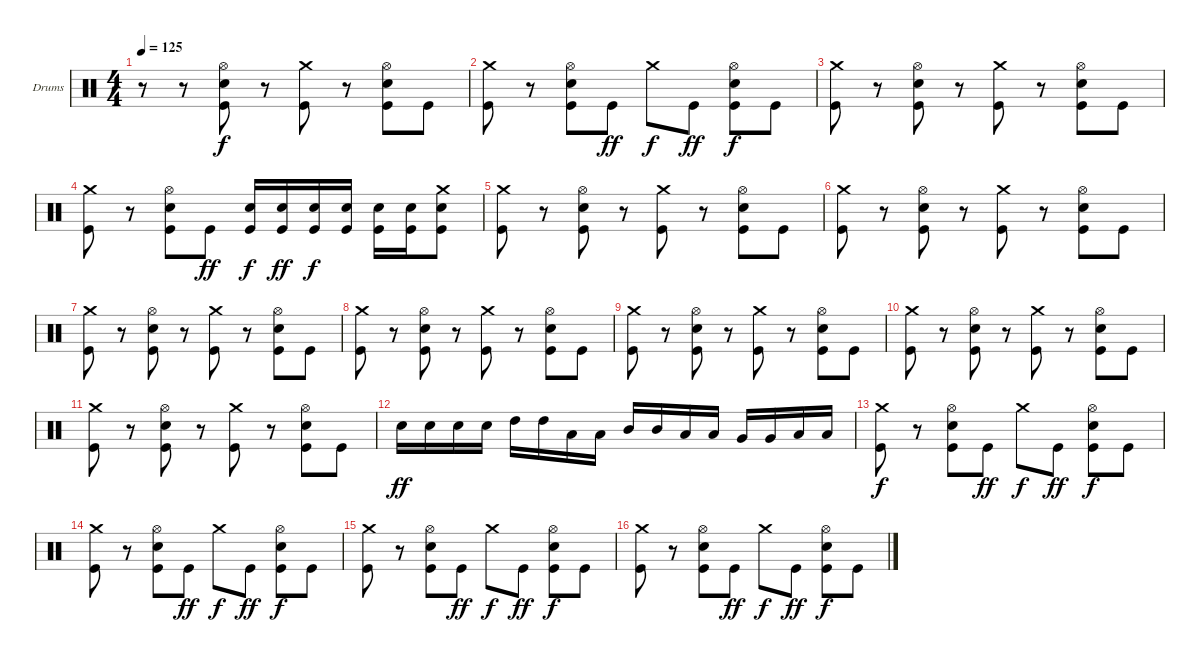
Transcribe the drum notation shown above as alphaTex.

\defaultSystemsLayout 4
\bracketExtendMode groupsimilarinstruments
\firstSystemTrackNameOrientation horizontal
\otherSystemsTrackNameOrientation horizontal
\track ("Drumkit" "Drums") {instrument percussion}
\staff {score}
\articulation defaults
\ts (4 4)
\tempo 125
\clef neutral
\ks c
r.8{dy f} r.8 ("Kick (hit)" "Snare (hit) 2" "Hi-Hat (open)").8 r.8 ("Kick (hit)" "Crash medium (hit)").8 r.8 ("Kick (hit)" "Snare (hit) 2" "Hi-Hat (open)").8 "Kick (hit)".8 |
("Kick (hit)" "Crash medium (hit)").8 r.8 ("Kick (hit)" "Snare (hit) 2" "Hi-Hat (open)").8 "Kick (hit)".8{dy ff} "Crash medium (hit)".8{dy f} "Kick (hit)".8{dy ff} ("Kick (hit)" "Snare (hit) 2" "Hi-Hat (open)").8{dy f} "Kick (hit)".8 |
("Kick (hit)" "Crash medium (hit)").8 r.8 ("Kick (hit)" "Snare (hit) 2" "Hi-Hat (open)").8 r.8 ("Kick (hit)" "Crash medium (hit)").8 r.8 ("Kick (hit)" "Snare (hit) 2" "Hi-Hat (open)").8 "Kick (hit)".8 |
("Kick (hit)" "Crash medium (hit)").8 r.8 ("Kick (hit)" "Snare (hit) 2" "Hi-Hat (open)").8 "Kick (hit)".8{dy ff} ("Kick (hit)" "Snare (hit) 2").16{dy f} ("Kick (hit)" "Snare (hit) 2").16{dy ff} ("Kick (hit)" "Snare (hit) 2").16{dy f} ("Kick (hit)" "Snare (hit) 2").16 ("Kick (hit)" "Snare (hit) 2").16 ("Kick (hit)" "Snare (hit) 2").16 ("Kick (hit)" "Snare (hit) 2" "Crash medium (hit)").8 |
("Kick (hit)" "Crash medium (hit)").8 r.8 ("Kick (hit)" "Snare (hit) 2" "Hi-Hat (open)").8 r.8 ("Kick (hit)" "Crash medium (hit)").8 r.8 ("Kick (hit)" "Snare (hit) 2" "Hi-Hat (open)").8 "Kick (hit)".8 |
("Kick (hit)" "Crash medium (hit)").8 r.8 ("Kick (hit)" "Snare (hit) 2" "Hi-Hat (open)").8 r.8 ("Kick (hit)" "Crash medium (hit)").8 r.8 ("Kick (hit)" "Snare (hit) 2" "Hi-Hat (open)").8 "Kick (hit)".8 |
("Kick (hit)" "Crash medium (hit)").8 r.8 ("Kick (hit)" "Snare (hit) 2" "Hi-Hat (open)").8 r.8 ("Kick (hit)" "Crash medium (hit)").8 r.8 ("Kick (hit)" "Snare (hit) 2" "Hi-Hat (open)").8 "Kick (hit)".8 |
("Kick (hit)" "Crash medium (hit)").8 r.8 ("Kick (hit)" "Snare (hit) 2" "Hi-Hat (open)").8 r.8 ("Kick (hit)" "Crash medium (hit)").8 r.8 ("Kick (hit)" "Snare (hit) 2" "Hi-Hat (open)").8 "Kick (hit)".8 |
("Kick (hit)" "Crash medium (hit)").8 r.8 ("Kick (hit)" "Snare (hit) 2" "Hi-Hat (open)").8 r.8 ("Kick (hit)" "Crash medium (hit)").8 r.8 ("Kick (hit)" "Snare (hit) 2" "Hi-Hat (open)").8 "Kick (hit)".8 |
("Kick (hit)" "Crash medium (hit)").8 r.8 ("Kick (hit)" "Snare (hit) 2" "Hi-Hat (open)").8 r.8 ("Kick (hit)" "Crash medium (hit)").8 r.8 ("Kick (hit)" "Snare (hit) 2" "Hi-Hat (open)").8 "Kick (hit)".8 |
("Kick (hit)" "Crash medium (hit)").8 r.8 ("Kick (hit)" "Snare (hit) 2" "Hi-Hat (open)").8 r.8 ("Kick (hit)" "Crash medium (hit)").8 r.8 ("Kick (hit)" "Snare (hit) 2" "Hi-Hat (open)").8 "Kick (hit)".8 |
"Snare (hit) 2".16{dy ff} "Snare (hit) 2".16 "Snare (hit) 2".16 "Snare (hit) 2".16 "High Tom (hit)".16 "High Tom (hit)".16 "Low Tom (hit)".16 "Low Tom (hit)".16 "Mid Tom (hit)".16 "Mid Tom (hit)".16 "Low Tom (hit)".16 "Low Tom (hit)".16 "Very Low Tom (hit)".16 "Very Low Tom (hit)".16 "Low Tom (hit)".16 "Low Tom (hit)".16 |
("Kick (hit)" "Crash medium (hit)").8{dy f} r.8 ("Kick (hit)" "Snare (hit) 2" "Hi-Hat (open)").8 "Kick (hit)".8{dy ff} "Crash medium (hit)".8{dy f} "Kick (hit)".8{dy ff} ("Kick (hit)" "Snare (hit) 2" "Hi-Hat (open)").8{dy f} "Kick (hit)".8 |
("Kick (hit)" "Crash medium (hit)").8 r.8 ("Kick (hit)" "Snare (hit) 2" "Hi-Hat (open)").8 "Kick (hit)".8{dy ff} "Crash medium (hit)".8{dy f} "Kick (hit)".8{dy ff} ("Kick (hit)" "Snare (hit) 2" "Hi-Hat (open)").8{dy f} "Kick (hit)".8 |
("Kick (hit)" "Crash medium (hit)").8 r.8 ("Kick (hit)" "Snare (hit) 2" "Hi-Hat (open)").8 "Kick (hit)".8{dy ff} "Crash medium (hit)".8{dy f} "Kick (hit)".8{dy ff} ("Kick (hit)" "Snare (hit) 2" "Hi-Hat (open)").8{dy f} "Kick (hit)".8 |
("Kick (hit)" "Crash medium (hit)").8 r.8 ("Kick (hit)" "Snare (hit) 2" "Hi-Hat (open)").8 "Kick (hit)".8{dy ff} "Crash medium (hit)".8{dy f} "Kick (hit)".8{dy ff} ("Kick (hit)" "Snare (hit) 2" "Hi-Hat (open)").8{dy f} "Kick (hit)".8
